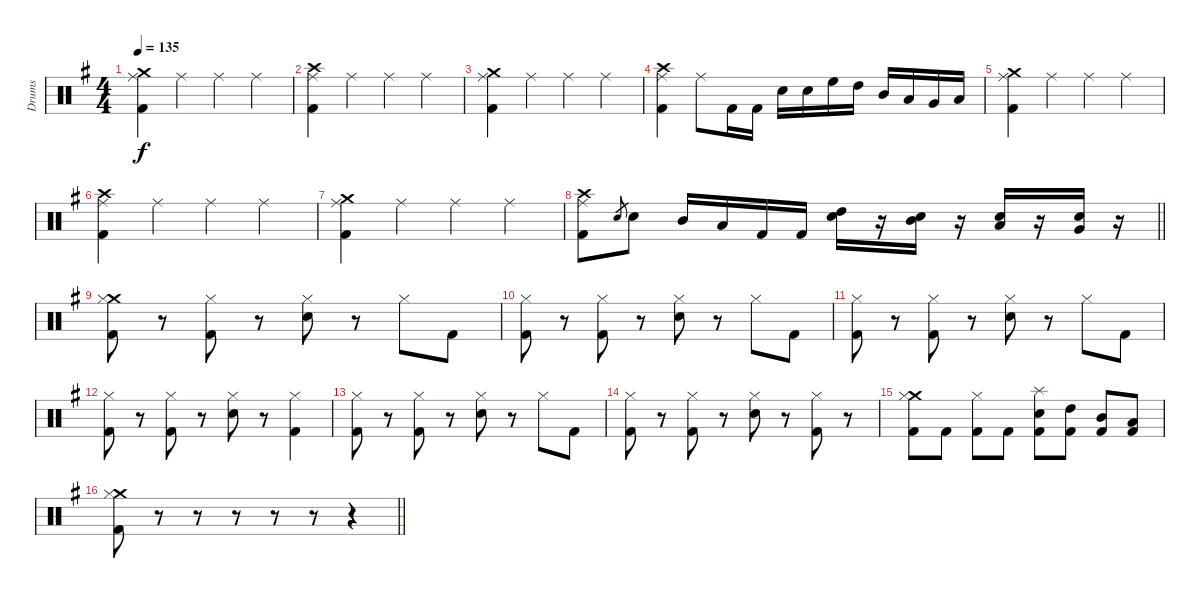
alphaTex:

\track ("Drums" "Drums") {instrument percussion}
\staff {score}
\articulation defaults
\ts (4 4)
\section ("" "")
\tempo 135
\clef neutral
\ks eminor
("Crash medium (hit)" "Ride (middle)" "Kick (hit) 2").4{dy f} "Ride (middle)".4 "Ride (middle)".4 "Ride (middle)".4 |
("Crash high (hit)" "Ride (middle)" "Kick (hit) 2").4 "Ride (middle)".4 "Ride (middle)".4 "Ride (middle)".4 |
("Crash medium (hit)" "Ride (middle)" "Kick (hit) 2").4 "Ride (middle)".4 "Ride (middle)".4 "Ride (middle)".4 |
("Crash high (hit)" "Ride (middle)" "Kick (hit) 2").4 "Ride (middle)".8 "Kick (hit) 2".16 "Kick (hit) 2".16 "Electric Snare (hit)".16 "Electric Snare (hit)".16 "High Floor Tom (hit)".16 "High Tom (hit)".16 "Mid Tom (hit)".16 "Low Tom (hit)".16 "Very Low Tom (hit)".16 "Low Floor Tom (hit)".16 |
("Crash medium (hit)" "Ride (middle)" "Kick (hit) 2").4 "Ride (middle)".4 "Ride (middle)".4 "Ride (middle)".4 |
("Crash high (hit)" "Ride (middle)" "Kick (hit) 2").4 "Ride (middle)".4 "Ride (middle)".4 "Ride (middle)".4 |
("Crash medium (hit)" "Ride (middle)" "Kick (hit) 2").4 "Ride (middle)".4 "Ride (middle)".4 "Ride (middle)".4 |
\barLineRight lightlight
("Crash high (hit)" "Ride (middle)" "Kick (hit) 2").8 "Electric Snare (hit)".8{gr} "Electric Snare (hit)".8 "Mid Tom (hit)".16 "Low Tom (hit)".16 "Kick (hit) 2".16 "Kick (hit) 2".16 ("High Tom (hit)" "Electric Snare (hit)").16 r.16 ("Mid Tom (hit)" "Electric Snare (hit)").16 r.16 ("Low Tom (hit)" "Electric Snare (hit)").16 r.16 ("Very Low Tom (hit)" "Electric Snare (hit)").16 r.16 |
\section ("" "")
("Crash medium (hit)" "Hi-Hat (closed)" "Kick (hit) 2").8 r.8 ("Hi-Hat (closed)" "Kick (hit) 2").8 r.8 ("Hi-Hat (closed)" "Electric Snare (hit)").8 r.8 "Hi-Hat (closed)".8 "Kick (hit) 2".8 |
("Hi-Hat (closed)" "Kick (hit) 2").8 r.8 ("Hi-Hat (closed)" "Kick (hit) 2").8 r.8 ("Hi-Hat (closed)" "Electric Snare (hit)").8 r.8 "Hi-Hat (closed)".8 "Kick (hit) 2".8 |
("Hi-Hat (closed)" "Kick (hit) 2").8 r.8 ("Hi-Hat (closed)" "Kick (hit) 2").8 r.8 ("Hi-Hat (closed)" "Electric Snare (hit)").8 r.8 "Hi-Hat (closed)".8 "Kick (hit) 2".8 |
("Hi-Hat (closed)" "Kick (hit) 2").8 r.8 ("Hi-Hat (closed)" "Kick (hit) 2").8 r.8 ("Hi-Hat (closed)" "Electric Snare (hit)").8 r.8 ("Hi-Hat (closed)" "Kick (hit) 2").4 |
("Hi-Hat (closed)" "Kick (hit) 2").8 r.8 ("Hi-Hat (closed)" "Kick (hit) 2").8 r.8 ("Hi-Hat (closed)" "Electric Snare (hit)").8 r.8 "Hi-Hat (closed)".8 "Kick (hit) 2".8 |
("Hi-Hat (closed)" "Kick (hit) 2").8 r.8 ("Hi-Hat (closed)" "Kick (hit) 2").8 r.8 ("Hi-Hat (closed)" "Electric Snare (hit)").8 r.8 ("Hi-Hat (closed)" "Kick (hit) 2").8 r.8 |
("Crash medium (hit)" "Hi-Hat (closed)" "Kick (hit) 2").8 "Kick (hit) 2".8 ("Hi-Hat (closed)" "Kick (hit) 2").8 "Kick (hit) 2".8 ("Splash (hit)" "Electric Snare (hit)" "Kick (hit) 2").8 ("High Tom (hit)" "Kick (hit) 2").8 ("Mid Tom (hit)" "Kick (hit) 2").8 ("Low Tom (hit)" "Kick (hit) 2").8 |
\barLineRight lightlight
("Crash medium (hit)" "Hi-Hat (closed)" "Kick (hit) 2").8 r.8 r.8 r.8 r.8 r.8 r.4
